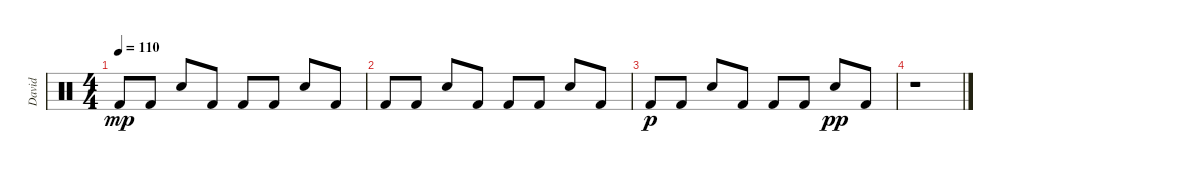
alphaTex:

\track ("David" "David") {instrument percussion}
\staff {score}
\articulation defaults
\ts (4 4)
\tempo 110
\clef neutral
\ks c "Kick (hit) 2".8{dy mp} "Kick (hit) 2".8 "Snare (hit) 2".8 "Kick (hit) 2".8 "Kick (hit) 2".8 "Kick (hit) 2".8 "Snare (hit) 2".8 "Kick (hit) 2".8
|
"Kick (hit) 2".8 "Kick (hit) 2".8 "Snare (hit) 2".8 "Kick (hit) 2".8 "Kick (hit) 2".8 "Kick (hit) 2".8 "Snare (hit) 2".8 "Kick (hit) 2".8 |
"Kick (hit) 2".8{dy p} "Kick (hit) 2".8 "Snare (hit) 2".8 "Kick (hit) 2".8 "Kick (hit) 2".8 "Kick (hit) 2".8 "Snare (hit) 2".8{dy pp} "Kick (hit) 2".8 |
r.1
